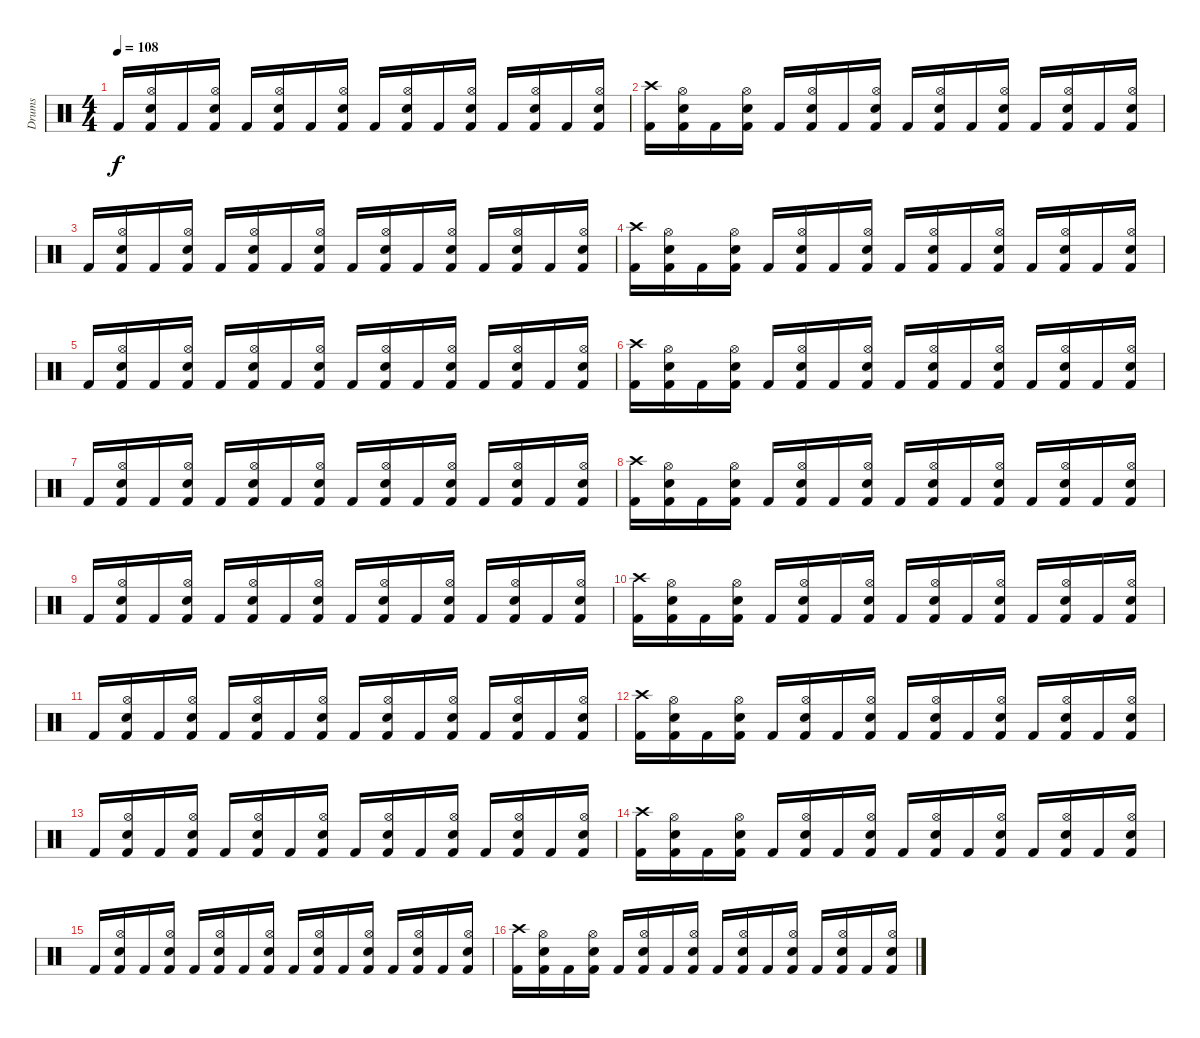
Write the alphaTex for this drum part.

\track ("Drums" "Drums") {instrument percussion}
\staff {score}
\articulation defaults
\ts (4 4)
\tempo 108
\clef neutral
\ks c "Kick (hit) 2".16{dy f}
("Hi-Hat (open)" "Snare (hit) 2" "Kick (hit) 2").16 "Kick (hit) 2".16 ("Hi-Hat (open)" "Snare (hit) 2" "Kick (hit) 2").16 "Kick (hit) 2".16 ("Hi-Hat (open)" "Snare (hit) 2" "Kick (hit) 2").16 "Kick (hit) 2".16 ("Hi-Hat (open)" "Snare (hit) 2" "Kick (hit) 2").16 "Kick (hit) 2".16 ("Hi-Hat (open)" "Snare (hit) 2" "Kick (hit) 2").16 "Kick (hit) 2".16 ("Hi-Hat (open)" "Snare (hit) 2" "Kick (hit) 2").16 "Kick (hit) 2".16 ("Hi-Hat (open)" "Snare (hit) 2" "Kick (hit) 2").16 "Kick (hit) 2".16 ("Hi-Hat (open)" "Snare (hit) 2" "Kick (hit) 2").16 |
("Crash high (hit)" "Kick (hit) 2").16 ("Hi-Hat (open)" "Snare (hit) 2" "Kick (hit) 2").16 "Kick (hit) 2".16 ("Hi-Hat (open)" "Snare (hit) 2" "Kick (hit) 2").16 "Kick (hit) 2".16 ("Hi-Hat (open)" "Snare (hit) 2" "Kick (hit) 2").16 "Kick (hit) 2".16 ("Hi-Hat (open)" "Snare (hit) 2" "Kick (hit) 2").16 "Kick (hit) 2".16 ("Hi-Hat (open)" "Snare (hit) 2" "Kick (hit) 2").16 "Kick (hit) 2".16 ("Hi-Hat (open)" "Snare (hit) 2" "Kick (hit) 2").16 "Kick (hit) 2".16 ("Hi-Hat (open)" "Snare (hit) 2" "Kick (hit) 2").16 "Kick (hit) 2".16 ("Hi-Hat (open)" "Snare (hit) 2" "Kick (hit) 2").16 |
"Kick (hit) 2".16 ("Hi-Hat (open)" "Snare (hit) 2" "Kick (hit) 2").16 "Kick (hit) 2".16 ("Hi-Hat (open)" "Snare (hit) 2" "Kick (hit) 2").16 "Kick (hit) 2".16 ("Hi-Hat (open)" "Snare (hit) 2" "Kick (hit) 2").16 "Kick (hit) 2".16 ("Hi-Hat (open)" "Snare (hit) 2" "Kick (hit) 2").16 "Kick (hit) 2".16 ("Hi-Hat (open)" "Snare (hit) 2" "Kick (hit) 2").16 "Kick (hit) 2".16 ("Hi-Hat (open)" "Snare (hit) 2" "Kick (hit) 2").16 "Kick (hit) 2".16 ("Hi-Hat (open)" "Snare (hit) 2" "Kick (hit) 2").16 "Kick (hit) 2".16 ("Hi-Hat (open)" "Snare (hit) 2" "Kick (hit) 2").16 |
("Crash high (hit)" "Kick (hit) 2").16 ("Hi-Hat (open)" "Snare (hit) 2" "Kick (hit) 2").16 "Kick (hit) 2".16 ("Hi-Hat (open)" "Snare (hit) 2" "Kick (hit) 2").16 "Kick (hit) 2".16 ("Hi-Hat (open)" "Snare (hit) 2" "Kick (hit) 2").16 "Kick (hit) 2".16 ("Hi-Hat (open)" "Snare (hit) 2" "Kick (hit) 2").16 "Kick (hit) 2".16 ("Hi-Hat (open)" "Snare (hit) 2" "Kick (hit) 2").16 "Kick (hit) 2".16 ("Hi-Hat (open)" "Snare (hit) 2" "Kick (hit) 2").16 "Kick (hit) 2".16 ("Hi-Hat (open)" "Snare (hit) 2" "Kick (hit) 2").16 "Kick (hit) 2".16 ("Hi-Hat (open)" "Snare (hit) 2" "Kick (hit) 2").16 |
"Kick (hit) 2".16 ("Hi-Hat (open)" "Snare (hit) 2" "Kick (hit) 2").16 "Kick (hit) 2".16 ("Hi-Hat (open)" "Snare (hit) 2" "Kick (hit) 2").16 "Kick (hit) 2".16 ("Hi-Hat (open)" "Snare (hit) 2" "Kick (hit) 2").16 "Kick (hit) 2".16 ("Hi-Hat (open)" "Snare (hit) 2" "Kick (hit) 2").16 "Kick (hit) 2".16 ("Hi-Hat (open)" "Snare (hit) 2" "Kick (hit) 2").16 "Kick (hit) 2".16 ("Hi-Hat (open)" "Snare (hit) 2" "Kick (hit) 2").16 "Kick (hit) 2".16 ("Hi-Hat (open)" "Snare (hit) 2" "Kick (hit) 2").16 "Kick (hit) 2".16 ("Hi-Hat (open)" "Snare (hit) 2" "Kick (hit) 2").16 |
("Crash high (hit)" "Kick (hit) 2").16 ("Hi-Hat (open)" "Snare (hit) 2" "Kick (hit) 2").16 "Kick (hit) 2".16 ("Hi-Hat (open)" "Snare (hit) 2" "Kick (hit) 2").16 "Kick (hit) 2".16 ("Hi-Hat (open)" "Snare (hit) 2" "Kick (hit) 2").16 "Kick (hit) 2".16 ("Hi-Hat (open)" "Snare (hit) 2" "Kick (hit) 2").16 "Kick (hit) 2".16 ("Hi-Hat (open)" "Snare (hit) 2" "Kick (hit) 2").16 "Kick (hit) 2".16 ("Hi-Hat (open)" "Snare (hit) 2" "Kick (hit) 2").16 "Kick (hit) 2".16 ("Hi-Hat (open)" "Snare (hit) 2" "Kick (hit) 2").16 "Kick (hit) 2".16 ("Hi-Hat (open)" "Snare (hit) 2" "Kick (hit) 2").16 |
"Kick (hit) 2".16 ("Hi-Hat (open)" "Snare (hit) 2" "Kick (hit) 2").16 "Kick (hit) 2".16 ("Hi-Hat (open)" "Snare (hit) 2" "Kick (hit) 2").16 "Kick (hit) 2".16 ("Hi-Hat (open)" "Snare (hit) 2" "Kick (hit) 2").16 "Kick (hit) 2".16 ("Hi-Hat (open)" "Snare (hit) 2" "Kick (hit) 2").16 "Kick (hit) 2".16 ("Hi-Hat (open)" "Snare (hit) 2" "Kick (hit) 2").16 "Kick (hit) 2".16 ("Hi-Hat (open)" "Snare (hit) 2" "Kick (hit) 2").16 "Kick (hit) 2".16 ("Hi-Hat (open)" "Snare (hit) 2" "Kick (hit) 2").16 "Kick (hit) 2".16 ("Hi-Hat (open)" "Snare (hit) 2" "Kick (hit) 2").16 |
("Crash high (hit)" "Kick (hit) 2").16 ("Hi-Hat (open)" "Snare (hit) 2" "Kick (hit) 2").16 "Kick (hit) 2".16 ("Hi-Hat (open)" "Snare (hit) 2" "Kick (hit) 2").16 "Kick (hit) 2".16 ("Hi-Hat (open)" "Snare (hit) 2" "Kick (hit) 2").16 "Kick (hit) 2".16 ("Hi-Hat (open)" "Snare (hit) 2" "Kick (hit) 2").16 "Kick (hit) 2".16 ("Hi-Hat (open)" "Snare (hit) 2" "Kick (hit) 2").16 "Kick (hit) 2".16 ("Hi-Hat (open)" "Snare (hit) 2" "Kick (hit) 2").16 "Kick (hit) 2".16 ("Hi-Hat (open)" "Snare (hit) 2" "Kick (hit) 2").16 "Kick (hit) 2".16 ("Hi-Hat (open)" "Snare (hit) 2" "Kick (hit) 2").16 |
"Kick (hit) 2".16 ("Hi-Hat (open)" "Snare (hit) 2" "Kick (hit) 2").16 "Kick (hit) 2".16 ("Hi-Hat (open)" "Snare (hit) 2" "Kick (hit) 2").16 "Kick (hit) 2".16 ("Hi-Hat (open)" "Snare (hit) 2" "Kick (hit) 2").16 "Kick (hit) 2".16 ("Hi-Hat (open)" "Snare (hit) 2" "Kick (hit) 2").16 "Kick (hit) 2".16 ("Hi-Hat (open)" "Snare (hit) 2" "Kick (hit) 2").16 "Kick (hit) 2".16 ("Hi-Hat (open)" "Snare (hit) 2" "Kick (hit) 2").16 "Kick (hit) 2".16 ("Hi-Hat (open)" "Snare (hit) 2" "Kick (hit) 2").16 "Kick (hit) 2".16 ("Hi-Hat (open)" "Snare (hit) 2" "Kick (hit) 2").16 |
("Crash high (hit)" "Kick (hit) 2").16 ("Hi-Hat (open)" "Snare (hit) 2" "Kick (hit) 2").16 "Kick (hit) 2".16 ("Hi-Hat (open)" "Snare (hit) 2" "Kick (hit) 2").16 "Kick (hit) 2".16 ("Hi-Hat (open)" "Snare (hit) 2" "Kick (hit) 2").16 "Kick (hit) 2".16 ("Hi-Hat (open)" "Snare (hit) 2" "Kick (hit) 2").16 "Kick (hit) 2".16 ("Hi-Hat (open)" "Snare (hit) 2" "Kick (hit) 2").16 "Kick (hit) 2".16 ("Hi-Hat (open)" "Snare (hit) 2" "Kick (hit) 2").16 "Kick (hit) 2".16 ("Hi-Hat (open)" "Snare (hit) 2" "Kick (hit) 2").16 "Kick (hit) 2".16 ("Hi-Hat (open)" "Snare (hit) 2" "Kick (hit) 2").16 |
"Kick (hit) 2".16 ("Hi-Hat (open)" "Snare (hit) 2" "Kick (hit) 2").16 "Kick (hit) 2".16 ("Hi-Hat (open)" "Snare (hit) 2" "Kick (hit) 2").16 "Kick (hit) 2".16 ("Hi-Hat (open)" "Snare (hit) 2" "Kick (hit) 2").16 "Kick (hit) 2".16 ("Hi-Hat (open)" "Snare (hit) 2" "Kick (hit) 2").16 "Kick (hit) 2".16 ("Hi-Hat (open)" "Snare (hit) 2" "Kick (hit) 2").16 "Kick (hit) 2".16 ("Hi-Hat (open)" "Snare (hit) 2" "Kick (hit) 2").16 "Kick (hit) 2".16 ("Hi-Hat (open)" "Snare (hit) 2" "Kick (hit) 2").16 "Kick (hit) 2".16 ("Hi-Hat (open)" "Snare (hit) 2" "Kick (hit) 2").16 |
("Crash high (hit)" "Kick (hit) 2").16 ("Hi-Hat (open)" "Snare (hit) 2" "Kick (hit) 2").16 "Kick (hit) 2".16 ("Hi-Hat (open)" "Snare (hit) 2" "Kick (hit) 2").16 "Kick (hit) 2".16 ("Hi-Hat (open)" "Snare (hit) 2" "Kick (hit) 2").16 "Kick (hit) 2".16 ("Hi-Hat (open)" "Snare (hit) 2" "Kick (hit) 2").16 "Kick (hit) 2".16 ("Hi-Hat (open)" "Snare (hit) 2" "Kick (hit) 2").16 "Kick (hit) 2".16 ("Hi-Hat (open)" "Snare (hit) 2" "Kick (hit) 2").16 "Kick (hit) 2".16 ("Hi-Hat (open)" "Snare (hit) 2" "Kick (hit) 2").16 "Kick (hit) 2".16 ("Hi-Hat (open)" "Snare (hit) 2" "Kick (hit) 2").16 |
"Kick (hit) 2".16 ("Hi-Hat (open)" "Snare (hit) 2" "Kick (hit) 2").16 "Kick (hit) 2".16 ("Hi-Hat (open)" "Snare (hit) 2" "Kick (hit) 2").16 "Kick (hit) 2".16 ("Hi-Hat (open)" "Snare (hit) 2" "Kick (hit) 2").16 "Kick (hit) 2".16 ("Hi-Hat (open)" "Snare (hit) 2" "Kick (hit) 2").16 "Kick (hit) 2".16 ("Hi-Hat (open)" "Snare (hit) 2" "Kick (hit) 2").16 "Kick (hit) 2".16 ("Hi-Hat (open)" "Snare (hit) 2" "Kick (hit) 2").16 "Kick (hit) 2".16 ("Hi-Hat (open)" "Snare (hit) 2" "Kick (hit) 2").16 "Kick (hit) 2".16 ("Hi-Hat (open)" "Snare (hit) 2" "Kick (hit) 2").16 |
("Crash high (hit)" "Kick (hit) 2").16 ("Hi-Hat (open)" "Snare (hit) 2" "Kick (hit) 2").16 "Kick (hit) 2".16 ("Hi-Hat (open)" "Snare (hit) 2" "Kick (hit) 2").16 "Kick (hit) 2".16 ("Hi-Hat (open)" "Snare (hit) 2" "Kick (hit) 2").16 "Kick (hit) 2".16 ("Hi-Hat (open)" "Snare (hit) 2" "Kick (hit) 2").16 "Kick (hit) 2".16 ("Hi-Hat (open)" "Snare (hit) 2" "Kick (hit) 2").16 "Kick (hit) 2".16 ("Hi-Hat (open)" "Snare (hit) 2" "Kick (hit) 2").16 "Kick (hit) 2".16 ("Hi-Hat (open)" "Snare (hit) 2" "Kick (hit) 2").16 "Kick (hit) 2".16 ("Hi-Hat (open)" "Snare (hit) 2" "Kick (hit) 2").16 |
"Kick (hit) 2".16 ("Hi-Hat (open)" "Snare (hit) 2" "Kick (hit) 2").16 "Kick (hit) 2".16 ("Hi-Hat (open)" "Snare (hit) 2" "Kick (hit) 2").16 "Kick (hit) 2".16 ("Hi-Hat (open)" "Snare (hit) 2" "Kick (hit) 2").16 "Kick (hit) 2".16 ("Hi-Hat (open)" "Snare (hit) 2" "Kick (hit) 2").16 "Kick (hit) 2".16 ("Hi-Hat (open)" "Snare (hit) 2" "Kick (hit) 2").16 "Kick (hit) 2".16 ("Hi-Hat (open)" "Snare (hit) 2" "Kick (hit) 2").16 "Kick (hit) 2".16 ("Hi-Hat (open)" "Snare (hit) 2" "Kick (hit) 2").16 "Kick (hit) 2".16 ("Hi-Hat (open)" "Snare (hit) 2" "Kick (hit) 2").16 |
("Crash high (hit)" "Kick (hit) 2").16 ("Hi-Hat (open)" "Snare (hit) 2" "Kick (hit) 2").16 "Kick (hit) 2".16 ("Hi-Hat (open)" "Snare (hit) 2" "Kick (hit) 2").16 "Kick (hit) 2".16 ("Hi-Hat (open)" "Snare (hit) 2" "Kick (hit) 2").16 "Kick (hit) 2".16 ("Hi-Hat (open)" "Snare (hit) 2" "Kick (hit) 2").16 "Kick (hit) 2".16 ("Hi-Hat (open)" "Snare (hit) 2" "Kick (hit) 2").16 "Kick (hit) 2".16 ("Hi-Hat (open)" "Snare (hit) 2" "Kick (hit) 2").16 "Kick (hit) 2".16 ("Hi-Hat (open)" "Snare (hit) 2" "Kick (hit) 2").16 "Kick (hit) 2".16 ("Hi-Hat (open)" "Snare (hit) 2" "Kick (hit) 2").16
